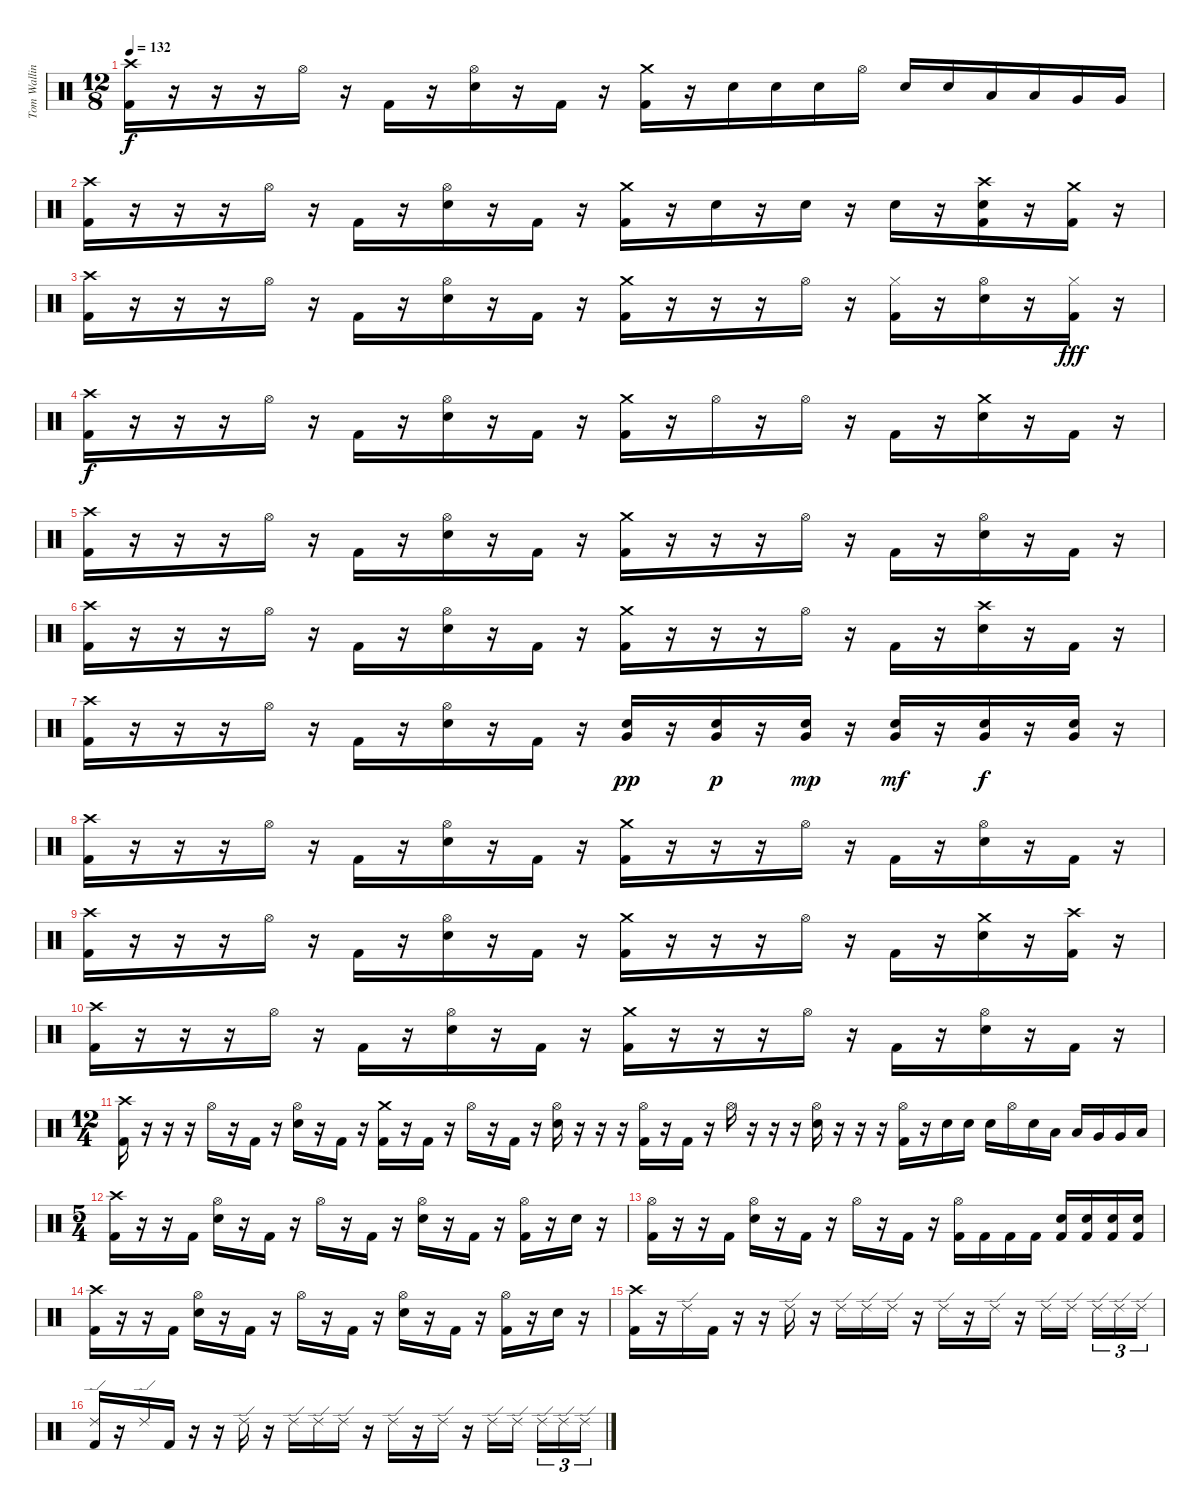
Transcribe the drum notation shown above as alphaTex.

\track ("Tom Walling [Drums]" "Tom Wallin") {instrument percussion}
\staff {score}
\articulation defaults
\ts (12 8)
\tempo 132
\clef neutral
\ks c
("Crash high (hit)" "Kick (hit) 2").16{dy f} r.16 r.16 r.16 "Hi-Hat (open)".16 r.16 "Kick (hit) 2".16 r.16 ("Hi-Hat (open)" "Electric Snare (hit)").16 r.16 "Kick (hit) 2".16 r.16 ("Crash medium (hit)" "Kick (hit) 2").16 r.16 "Electric Snare (hit)".16 "Electric Snare (hit)".16 "Electric Snare (hit)".16 "Hi-Hat (open)".16 "Electric Snare (hit)".16 "Electric Snare (hit)".16 "Low Tom (hit)".16 "Low Tom (hit)".16 "Very Low Tom (hit)".16 "Very Low Tom (hit)".16 |
("Crash high (hit)" "Kick (hit) 2").16 r.16 r.16 r.16 "Hi-Hat (open)".16 r.16 "Kick (hit) 2".16 r.16 ("Hi-Hat (open)" "Electric Snare (hit)").16 r.16 "Kick (hit) 2".16 r.16 ("Crash medium (hit)" "Kick (hit) 2").16 r.16 "Electric Snare (hit)".16 r.16 "Electric Snare (hit)".16 r.16 "Electric Snare (hit)".16 r.16 ("Crash high (hit)" "Electric Snare (hit)" "Kick (hit) 2").16 r.16 ("Crash medium (hit)" "Kick (hit) 2").16 r.16 |
("Crash high (hit)" "Kick (hit) 2").16 r.16 r.16 r.16 "Hi-Hat (open)".16 r.16 "Kick (hit) 2".16 r.16 ("Hi-Hat (open)" "Electric Snare (hit)").16 r.16 "Kick (hit) 2".16 r.16 ("Crash medium (hit)" "Kick (hit) 2").16 r.16 r.16 r.16 "Hi-Hat (open)".16 r.16 ("Hi-Hat (closed)" "Kick (hit) 2").16 r.16 ("Hi-Hat (open)" "Electric Snare (hit)").16 r.16 ("Hi-Hat (closed)" "Kick (hit) 2").16{dy fff} r.16 |
("Crash high (hit)" "Kick (hit) 2").16{dy f} r.16 r.16 r.16 "Hi-Hat (open)".16 r.16 "Kick (hit) 2".16 r.16 ("Hi-Hat (open)" "Electric Snare (hit)").16 r.16 "Kick (hit) 2".16 r.16 ("Crash medium (hit)" "Kick (hit) 2").16 r.16 "Hi-Hat (open)".16 r.16 "Hi-Hat (open)".16 r.16 "Kick (hit) 2".16 r.16 ("Crash medium (hit)" "Electric Snare (hit)").16 r.16 "Kick (hit) 2".16 r.16 |
("Crash high (hit)" "Kick (hit) 2").16 r.16 r.16 r.16 "Hi-Hat (open)".16 r.16 "Kick (hit) 2".16 r.16 ("Hi-Hat (open)" "Electric Snare (hit)").16 r.16 "Kick (hit) 2".16 r.16 ("Crash medium (hit)" "Kick (hit) 2").16 r.16 r.16 r.16 "Hi-Hat (open)".16 r.16 "Kick (hit) 2".16 r.16 ("Hi-Hat (open)" "Electric Snare (hit)").16 r.16 "Kick (hit) 2".16 r.16 |
("Crash high (hit)" "Kick (hit) 2").16 r.16 r.16 r.16 "Hi-Hat (open)".16 r.16 "Kick (hit) 2".16 r.16 ("Hi-Hat (open)" "Electric Snare (hit)").16 r.16 "Kick (hit) 2".16 r.16 ("Crash medium (hit)" "Kick (hit) 2").16 r.16 r.16 r.16 "Hi-Hat (open)".16 r.16 "Kick (hit) 2".16 r.16 ("Crash high (hit)" "Electric Snare (hit)").16 r.16 "Kick (hit) 2".16 r.16 |
("Crash high (hit)" "Kick (hit) 2").16 r.16 r.16 r.16 "Hi-Hat (open)".16 r.16 "Kick (hit) 2".16 r.16 ("Hi-Hat (open)" "Electric Snare (hit)").16 r.16 "Kick (hit) 2".16 r.16 ("Very Low Tom (hit)" "Electric Snare (hit)").16{dy pp} r.16 ("Very Low Tom (hit)" "Electric Snare (hit)").16{dy p} r.16 ("Very Low Tom (hit)" "Electric Snare (hit)").16{dy mp} r.16 ("Very Low Tom (hit)" "Electric Snare (hit)").16{dy mf} r.16 ("Very Low Tom (hit)" "Electric Snare (hit)").16{dy f} r.16 ("Very Low Tom (hit)" "Electric Snare (hit)").16 r.16 |
("Crash high (hit)" "Kick (hit) 2").16 r.16 r.16 r.16 "Hi-Hat (open)".16 r.16 "Kick (hit) 2".16 r.16 ("Hi-Hat (open)" "Electric Snare (hit)").16 r.16 "Kick (hit) 2".16 r.16 ("Crash medium (hit)" "Kick (hit) 2").16 r.16 r.16 r.16 "Hi-Hat (open)".16 r.16 "Kick (hit) 2".16 r.16 ("Hi-Hat (open)" "Electric Snare (hit)").16 r.16 "Kick (hit) 2".16 r.16 |
("Crash high (hit)" "Kick (hit) 2").16 r.16 r.16 r.16 "Hi-Hat (open)".16 r.16 "Kick (hit) 2".16 r.16 ("Hi-Hat (open)" "Electric Snare (hit)").16 r.16 "Kick (hit) 2".16 r.16 ("Crash medium (hit)" "Kick (hit) 2").16 r.16 r.16 r.16 "Hi-Hat (open)".16 r.16 "Kick (hit) 2".16 r.16 ("Crash medium (hit)" "Electric Snare (hit)").16 r.16 ("Crash high (hit)" "Kick (hit) 2").16 r.16 |
("Crash high (hit)" "Kick (hit) 2").16 r.16 r.16 r.16 "Hi-Hat (open)".16 r.16 "Kick (hit) 2".16 r.16 ("Hi-Hat (open)" "Electric Snare (hit)").16 r.16 "Kick (hit) 2".16 r.16 ("Crash medium (hit)" "Kick (hit) 2").16 r.16 r.16 r.16 "Hi-Hat (open)".16 r.16 "Kick (hit) 2".16 r.16 ("Hi-Hat (open)" "Electric Snare (hit)").16 r.16 "Kick (hit) 2".16 r.16 |
\ts (12 4)
("Crash high (hit)" "Kick (hit) 2").16 r.16 r.16 r.16 "Hi-Hat (open)".16 r.16 "Kick (hit) 2".16 r.16 ("Hi-Hat (open)" "Electric Snare (hit)").16 r.16 "Kick (hit) 2".16 r.16 ("Crash medium (hit)" "Kick (hit) 2").16 r.16 "Kick (hit) 2".16 r.16 "Hi-Hat (open)".16 r.16 "Kick (hit) 2".16 r.16 ("Hi-Hat (open)" "Electric Snare (hit)").16 r.16 r.16 r.16 ("Hi-Hat (open)" "Kick (hit) 2").16 r.16 "Kick (hit) 2".16 r.16 "Hi-Hat (open)".16 r.16 r.16 r.16 ("Hi-Hat (open)" "Electric Snare (hit)").16 r.16 r.16 r.16 ("Hi-Hat (open)" "Kick (hit) 2").16 r.16 "Electric Snare (hit)".16 "Electric Snare (hit)".16 "Electric Snare (hit)".16 "Hi-Hat (open)".16 "Electric Snare (hit)".16 "Low Tom (hit)".16 "Low Tom (hit)".16 "Very Low Tom (hit)".16 "Very Low Tom (hit)".16 "Low Floor Tom (hit)".16 |
\ts (5 4)
("Crash high (hit)" "Kick (hit) 2").16 r.16 r.16 "Kick (hit) 2".16 ("Hi-Hat (open)" "Electric Snare (hit)").16 r.16 "Kick (hit) 2".16 r.16 "Hi-Hat (open)".16 r.16 "Kick (hit) 2".16 r.16 ("Hi-Hat (open)" "Electric Snare (hit)").16 r.16 "Kick (hit) 2".16 r.16 ("Hi-Hat (open)" "Kick (hit) 2").16 r.16 "Electric Snare (hit)".16 r.16 |
("Hi-Hat (open)" "Kick (hit) 2").16 r.16 r.16 "Kick (hit) 2".16 ("Hi-Hat (open)" "Electric Snare (hit)").16 r.16 "Kick (hit) 2".16 r.16 "Hi-Hat (open)".16 r.16 "Kick (hit) 2".16 r.16 ("Hi-Hat (open)" "Kick (hit) 2").16 "Kick (hit) 2".16 "Kick (hit) 2".16 "Kick (hit) 2".16 ("Electric Snare (hit)" "Kick (hit) 2").16 ("Electric Snare (hit)" "Kick (hit) 2").16 ("Electric Snare (hit)" "Kick (hit) 2").16 ("Electric Snare (hit)" "Kick (hit) 2").16 |
("Crash high (hit)" "Kick (hit) 2").16 r.16 r.16 "Kick (hit) 2".16 ("Hi-Hat (open)" "Electric Snare (hit)").16 r.16 "Kick (hit) 2".16 r.16 "Hi-Hat (open)".16 r.16 "Kick (hit) 2".16 r.16 ("Hi-Hat (open)" "Electric Snare (hit)").16 r.16 "Kick (hit) 2".16 r.16 ("Hi-Hat (open)" "Kick (hit) 2").16 r.16 "Electric Snare (hit)".16 r.16 |
("Crash high (hit)" "Kick (hit) 2").16 r.16 "Ride (edge) 2".16 "Kick (hit) 2".16 r.16 r.16 "Ride (edge) 2".16 r.16 "Ride (edge) 2".16 "Ride (edge) 2".16 "Ride (edge) 2".16 r.16 "Ride (edge) 2".16 r.16 "Ride (edge) 2".16 r.16 "Ride (edge) 2".16 "Ride (edge) 2".16 "Ride (edge) 2".16{tu (3 2)} "Ride (edge) 2".16{tu (3 2)} "Ride (edge) 2".16{tu (3 2)} |
("Ride (edge) 2" "Kick (hit) 2").16 r.16 "Ride (edge) 2".16 "Kick (hit) 2".16 r.16 r.16 "Ride (edge) 2".16 r.16 "Ride (edge) 2".16 "Ride (edge) 2".16 "Ride (edge) 2".16 r.16 "Ride (edge) 2".16 r.16 "Ride (edge) 2".16 r.16 "Ride (edge) 2".16 "Ride (edge) 2".16 "Ride (edge) 2".16{tu (3 2)} "Ride (edge) 2".16{tu (3 2)} "Ride (edge) 2".16{tu (3 2)}
